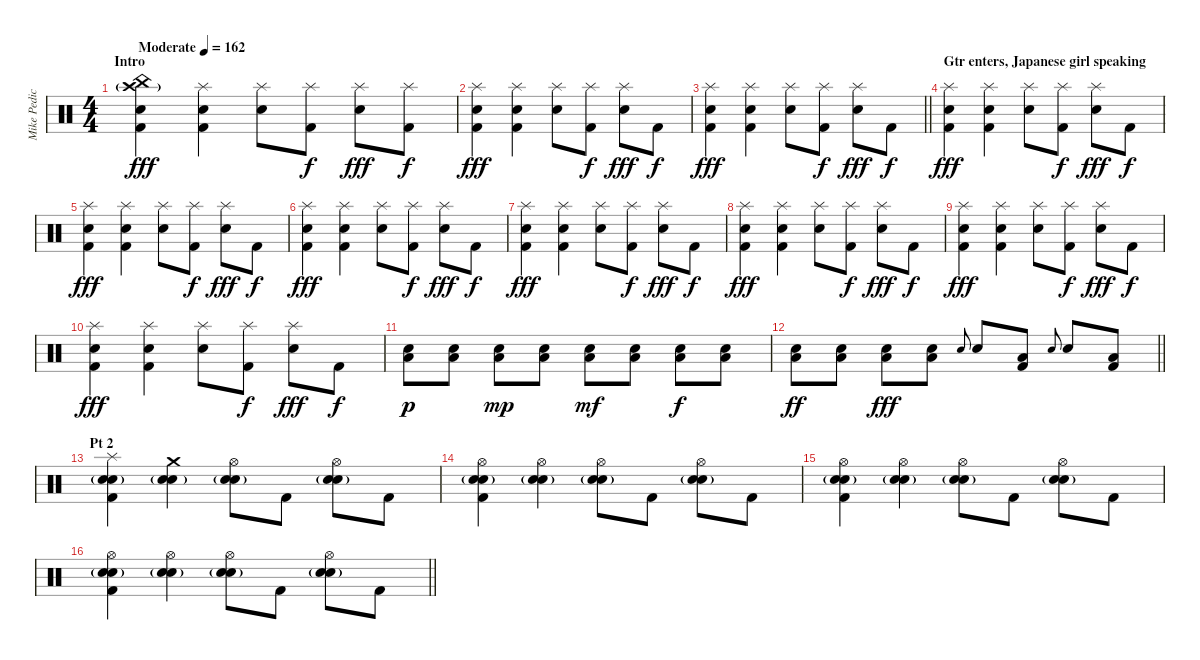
\track ("Mike Pedicone [Drums]" "Mike Pedic") {instrument percussion}
\staff
\articulation defaults
\ts (4 4)
\section ("" "Intro")
\tempo (162 "Moderate")
\clef neutral
\ks c
("China (hit)" "Crash high (hit)"{g} "Electric Snare (hit)" "Kick (hit) 2").4{dy fff} ("Splash (hit)" "Electric Snare (hit)" "Kick (hit) 2").4 ("Splash (hit)" "Electric Snare (hit)").8 ("Splash (hit)" "Kick (hit) 2").8{dy f} ("Splash (hit)" "Electric Snare (hit)").8{dy fff} ("Splash (hit)" "Kick (hit) 2").8{dy f} |
("Splash (hit)" "Electric Snare (hit)" "Kick (hit) 2").4{dy fff} ("Splash (hit)" "Electric Snare (hit)" "Kick (hit) 2").4 ("Splash (hit)" "Electric Snare (hit)").8 ("Splash (hit)" "Kick (hit) 2").8{dy f} ("Splash (hit)" "Electric Snare (hit)").8{dy fff} "Kick (hit) 2".8{dy f} |
\barLineRight lightlight
("Splash (hit)" "Electric Snare (hit)" "Kick (hit) 2").4{dy fff} ("Splash (hit)" "Electric Snare (hit)" "Kick (hit) 2").4 ("Splash (hit)" "Electric Snare (hit)").8 ("Splash (hit)" "Kick (hit) 2").8{dy f} ("Splash (hit)" "Electric Snare (hit)").8{dy fff} "Kick (hit) 2".8{dy f} |
\section ("" "Gtr enters, Japanese girl speaking")
("Splash (hit)" "Electric Snare (hit)" "Kick (hit) 2").4{dy fff} ("Splash (hit)" "Electric Snare (hit)" "Kick (hit) 2").4 ("Splash (hit)" "Electric Snare (hit)").8 ("Splash (hit)" "Kick (hit) 2").8{dy f} ("Splash (hit)" "Electric Snare (hit)").8{dy fff} "Kick (hit) 2".8{dy f} |
("Splash (hit)" "Electric Snare (hit)" "Kick (hit) 2").4{dy fff} ("Splash (hit)" "Electric Snare (hit)" "Kick (hit) 2").4 ("Splash (hit)" "Electric Snare (hit)").8 ("Splash (hit)" "Kick (hit) 2").8{dy f} ("Splash (hit)" "Electric Snare (hit)").8{dy fff} "Kick (hit) 2".8{dy f} |
("Splash (hit)" "Electric Snare (hit)" "Kick (hit) 2").4{dy fff} ("Splash (hit)" "Electric Snare (hit)" "Kick (hit) 2").4 ("Splash (hit)" "Electric Snare (hit)").8 ("Splash (hit)" "Kick (hit) 2").8{dy f} ("Splash (hit)" "Electric Snare (hit)").8{dy fff} "Kick (hit) 2".8{dy f} |
("Splash (hit)" "Electric Snare (hit)" "Kick (hit) 2").4{dy fff} ("Splash (hit)" "Electric Snare (hit)" "Kick (hit) 2").4 ("Splash (hit)" "Electric Snare (hit)").8 ("Splash (hit)" "Kick (hit) 2").8{dy f} ("Splash (hit)" "Electric Snare (hit)").8{dy fff} "Kick (hit) 2".8{dy f} |
("Splash (hit)" "Electric Snare (hit)" "Kick (hit) 2").4{dy fff} ("Splash (hit)" "Electric Snare (hit)" "Kick (hit) 2").4 ("Splash (hit)" "Electric Snare (hit)").8 ("Splash (hit)" "Kick (hit) 2").8{dy f} ("Splash (hit)" "Electric Snare (hit)").8{dy fff} "Kick (hit) 2".8{dy f} |
("Splash (hit)" "Electric Snare (hit)" "Kick (hit) 2").4{dy fff} ("Splash (hit)" "Electric Snare (hit)" "Kick (hit) 2").4 ("Splash (hit)" "Electric Snare (hit)").8 ("Splash (hit)" "Kick (hit) 2").8{dy f} ("Splash (hit)" "Electric Snare (hit)").8{dy fff} "Kick (hit) 2".8{dy f} |
("Splash (hit)" "Electric Snare (hit)" "Kick (hit) 2").4{dy fff} ("Splash (hit)" "Electric Snare (hit)" "Kick (hit) 2").4 ("Splash (hit)" "Electric Snare (hit)").8 ("Splash (hit)" "Kick (hit) 2").8{dy f} ("Splash (hit)" "Electric Snare (hit)").8{dy fff} "Kick (hit) 2".8{dy f} |
("Low Floor Tom (hit)" "Electric Snare (hit)").8{dy p volume 16} ("Low Floor Tom (hit)" "Electric Snare (hit)").8 ("Low Floor Tom (hit)" "Electric Snare (hit)").8{dy mp} ("Low Floor Tom (hit)" "Electric Snare (hit)").8 ("Low Floor Tom (hit)" "Electric Snare (hit)").8{dy mf} ("Low Floor Tom (hit)" "Electric Snare (hit)").8 ("Low Floor Tom (hit)" "Electric Snare (hit)").8{dy f} ("Low Floor Tom (hit)" "Electric Snare (hit)").8 |
\barLineRight lightlight
("Low Floor Tom (hit)" "Electric Snare (hit)").8{dy ff} ("Low Floor Tom (hit)" "Electric Snare (hit)").8 ("Low Floor Tom (hit)" "Electric Snare (hit)").8{dy fff} ("Low Floor Tom (hit)" "Electric Snare (hit)").8 "Electric Snare (hit)".8{gr onbeat} "Electric Snare (hit)".8 ("Low Floor Tom (hit)" "Kick (hit) 2").8 "Electric Snare (hit)".8{gr onbeat} "Electric Snare (hit)".8 ("Low Floor Tom (hit)" "Kick (hit) 2").8 |
\section ("" "Pt 2")
("Splash (hit)" "Hand Clap (hit)"{g} "Electric Snare (hit)" "Kick (hit) 2").4 ("Crash medium (hit)" "Hand Clap (hit)"{g} "Electric Snare (hit)").4 ("Hi-Hat (open)" "Hand Clap (hit)"{g} "Electric Snare (hit)").8 "Kick (hit) 2".8 ("Hi-Hat (open)" "Hand Clap (hit)"{g} "Electric Snare (hit)").8 "Kick (hit) 2".8 |
("Hi-Hat (open)" "Hand Clap (hit)"{g} "Electric Snare (hit)" "Kick (hit) 2").4 ("Hi-Hat (open)" "Hand Clap (hit)"{g} "Electric Snare (hit)").4 ("Hi-Hat (open)" "Hand Clap (hit)"{g} "Electric Snare (hit)").8 "Kick (hit) 2".8 ("Hi-Hat (open)" "Hand Clap (hit)"{g} "Electric Snare (hit)").8 "Kick (hit) 2".8 |
("Hi-Hat (open)" "Hand Clap (hit)"{g} "Electric Snare (hit)" "Kick (hit) 2").4 ("Hi-Hat (open)" "Hand Clap (hit)"{g} "Electric Snare (hit)").4 ("Hi-Hat (open)" "Hand Clap (hit)"{g} "Electric Snare (hit)").8 "Kick (hit) 2".8 ("Hi-Hat (open)" "Hand Clap (hit)"{g} "Electric Snare (hit)").8 "Kick (hit) 2".8 |
\barLineRight lightlight
("Hi-Hat (open)" "Hand Clap (hit)"{g} "Electric Snare (hit)" "Kick (hit) 2").4 ("Hi-Hat (open)" "Hand Clap (hit)"{g} "Electric Snare (hit)").4 ("Hi-Hat (open)" "Hand Clap (hit)"{g} "Electric Snare (hit)").8 "Kick (hit) 2".8 ("Hi-Hat (open)" "Hand Clap (hit)"{g} "Electric Snare (hit)").8 "Kick (hit) 2".8
